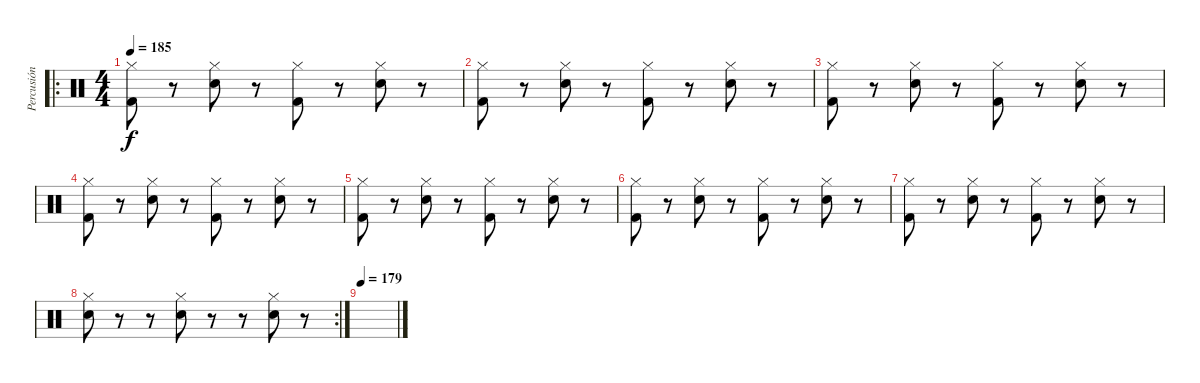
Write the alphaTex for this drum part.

\track ("Percusión" "Percusión") {mute instrument percussion}
\staff {score}
\articulation defaults
\ro
\ts (4 4)
\tempo 185
\clef neutral
\ks c
("Kick (hit) 2" "Hi-Hat (closed)").8{dy f} r.8 ("Electric Snare (hit)" "Hi-Hat (closed)").8 r.8 ("Kick (hit) 2" "Hi-Hat (closed)").8 r.8 ("Electric Snare (hit)" "Hi-Hat (closed)").8 r.8 |
("Kick (hit) 2" "Hi-Hat (closed)").8 r.8 ("Electric Snare (hit)" "Hi-Hat (closed)").8 r.8 ("Kick (hit) 2" "Hi-Hat (closed)").8 r.8 ("Electric Snare (hit)" "Hi-Hat (closed)").8 r.8 |
("Kick (hit) 2" "Hi-Hat (closed)").8 r.8 ("Electric Snare (hit)" "Hi-Hat (closed)").8 r.8 ("Kick (hit) 2" "Hi-Hat (closed)").8 r.8 ("Electric Snare (hit)" "Hi-Hat (closed)").8 r.8 |
("Kick (hit) 2" "Hi-Hat (closed)").8 r.8 ("Electric Snare (hit)" "Hi-Hat (closed)").8 r.8 ("Kick (hit) 2" "Hi-Hat (closed)").8 r.8 ("Electric Snare (hit)" "Hi-Hat (closed)").8 r.8 |
("Kick (hit) 2" "Hi-Hat (closed)").8 r.8 ("Electric Snare (hit)" "Hi-Hat (closed)").8 r.8 ("Kick (hit) 2" "Hi-Hat (closed)").8 r.8 ("Electric Snare (hit)" "Hi-Hat (closed)").8 r.8 |
("Kick (hit) 2" "Hi-Hat (closed)").8 r.8 ("Electric Snare (hit)" "Hi-Hat (closed)").8 r.8 ("Kick (hit) 2" "Hi-Hat (closed)").8 r.8 ("Electric Snare (hit)" "Hi-Hat (closed)").8 r.8 |
("Kick (hit) 2" "Hi-Hat (closed)").8 r.8 ("Electric Snare (hit)" "Hi-Hat (closed)").8 r.8 ("Kick (hit) 2" "Hi-Hat (closed)").8 r.8 ("Electric Snare (hit)" "Hi-Hat (closed)").8 r.8 |
\rc 2
("Electric Snare (hit)" "Hi-Hat (closed)").8 r.8 r.8 ("Electric Snare (hit)" "Hi-Hat (closed)").8 r.8 r.8 ("Electric Snare (hit)" "Hi-Hat (closed)").8 r.8 |
\tempo 179
